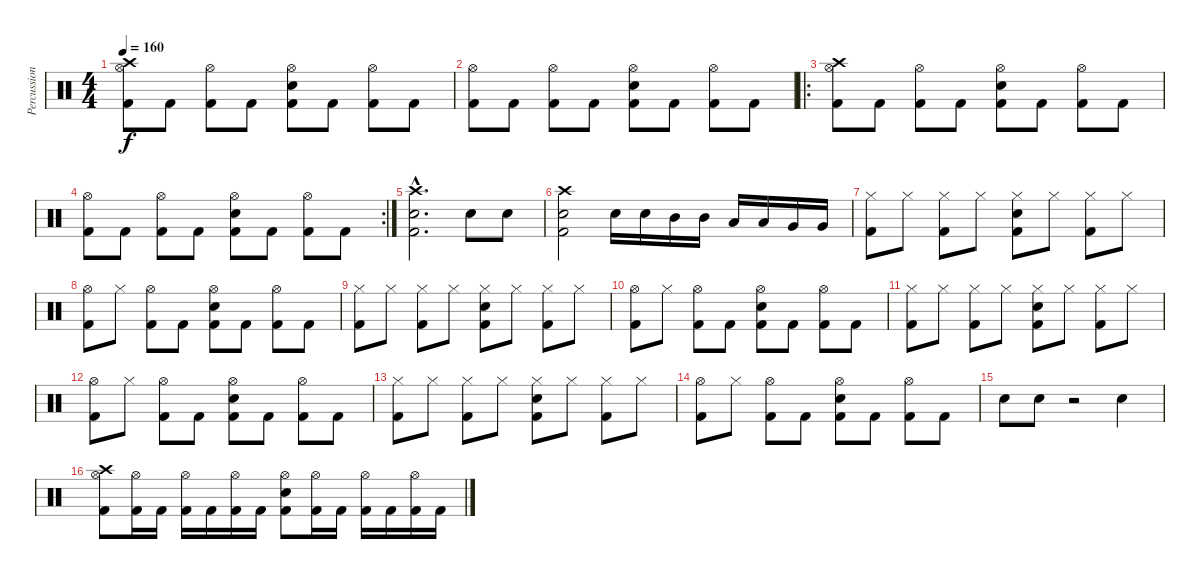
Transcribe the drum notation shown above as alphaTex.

\track ("Percussion" "Percussion") {instrument percussion}
\staff {score}
\articulation defaults
\ts (4 4)
\tempo 160
\clef neutral
\ks c
("Crash high (hit)" "Hi-Hat (open)" "Kick (hit) 2").8{dy f} "Kick (hit) 2".8 ("Hi-Hat (open)" "Kick (hit) 2").8 "Kick (hit) 2".8 ("Hi-Hat (open)" "Electric Snare (hit)" "Kick (hit) 2").8 "Kick (hit) 2".8 ("Hi-Hat (open)" "Kick (hit) 2").8 "Kick (hit) 2".8 |
("Hi-Hat (open)" "Kick (hit) 2").8 "Kick (hit) 2".8 ("Hi-Hat (open)" "Kick (hit) 2").8 "Kick (hit) 2".8 ("Hi-Hat (open)" "Electric Snare (hit)" "Kick (hit) 2").8 "Kick (hit) 2".8 ("Hi-Hat (open)" "Kick (hit) 2").8 "Kick (hit) 2".8 |
\ro
("Crash high (hit)" "Hi-Hat (open)" "Kick (hit) 2").8 "Kick (hit) 2".8 ("Hi-Hat (open)" "Kick (hit) 2").8 "Kick (hit) 2".8 ("Hi-Hat (open)" "Electric Snare (hit)" "Kick (hit) 2").8 "Kick (hit) 2".8 ("Hi-Hat (open)" "Kick (hit) 2").8 "Kick (hit) 2".8 |
\rc 2
("Hi-Hat (open)" "Kick (hit) 2").8 "Kick (hit) 2".8 ("Hi-Hat (open)" "Kick (hit) 2").8 "Kick (hit) 2".8 ("Hi-Hat (open)" "Electric Snare (hit)" "Kick (hit) 2").8 "Kick (hit) 2".8 ("Hi-Hat (open)" "Kick (hit) 2").8 "Kick (hit) 2".8 |
("Crash high (hit)"{hac} "Electric Snare (hit)"{hac} "Kick (hit) 2"{hac}).2{d} "Electric Snare (hit)".8 "Electric Snare (hit)".8 |
("Crash high (hit)" "Electric Snare (hit)" "Kick (hit) 2").2 "Electric Snare (hit)".16 "Electric Snare (hit)".16 "Mid Tom (hit)".16 "Mid Tom (hit)".16 "Low Tom (hit)".16 "Low Tom (hit)".16 "Very Low Tom (hit)".16 "Very Low Tom (hit)".16 |
("Hi-Hat (closed)" "Kick (hit) 2").8 "Hi-Hat (closed)".8 ("Hi-Hat (closed)" "Kick (hit) 2").8 "Hi-Hat (closed)".8 ("Hi-Hat (closed)" "Electric Snare (hit)" "Kick (hit) 2").8 "Hi-Hat (closed)".8 ("Hi-Hat (closed)" "Kick (hit) 2").8 "Hi-Hat (closed)".8 |
("Hi-Hat (open)" "Kick (hit) 2").8 "Hi-Hat (closed)".8 ("Hi-Hat (open)" "Kick (hit) 2").8 "Kick (hit) 2".8 ("Hi-Hat (open)" "Electric Snare (hit)" "Kick (hit) 2").8 "Kick (hit) 2".8 ("Hi-Hat (open)" "Kick (hit) 2").8 "Kick (hit) 2".8 |
("Hi-Hat (closed)" "Kick (hit) 2").8 "Hi-Hat (closed)".8 ("Hi-Hat (closed)" "Kick (hit) 2").8 "Hi-Hat (closed)".8 ("Hi-Hat (closed)" "Electric Snare (hit)" "Kick (hit) 2").8 "Hi-Hat (closed)".8 ("Hi-Hat (closed)" "Kick (hit) 2").8 "Hi-Hat (closed)".8 |
("Hi-Hat (open)" "Kick (hit) 2").8 "Hi-Hat (closed)".8 ("Hi-Hat (open)" "Kick (hit) 2").8 "Kick (hit) 2".8 ("Hi-Hat (open)" "Electric Snare (hit)" "Kick (hit) 2").8 "Kick (hit) 2".8 ("Hi-Hat (open)" "Kick (hit) 2").8 "Kick (hit) 2".8 |
("Hi-Hat (closed)" "Kick (hit) 2").8 "Hi-Hat (closed)".8 ("Hi-Hat (closed)" "Kick (hit) 2").8 "Hi-Hat (closed)".8 ("Hi-Hat (closed)" "Electric Snare (hit)" "Kick (hit) 2").8 "Hi-Hat (closed)".8 ("Hi-Hat (closed)" "Kick (hit) 2").8 "Hi-Hat (closed)".8 |
("Hi-Hat (open)" "Kick (hit) 2").8 "Hi-Hat (closed)".8 ("Hi-Hat (open)" "Kick (hit) 2").8 "Kick (hit) 2".8 ("Hi-Hat (open)" "Electric Snare (hit)" "Kick (hit) 2").8 "Kick (hit) 2".8 ("Hi-Hat (open)" "Kick (hit) 2").8 "Kick (hit) 2".8 |
("Hi-Hat (closed)" "Kick (hit) 2").8 "Hi-Hat (closed)".8 ("Hi-Hat (closed)" "Kick (hit) 2").8 "Hi-Hat (closed)".8 ("Hi-Hat (closed)" "Electric Snare (hit)" "Kick (hit) 2").8 "Hi-Hat (closed)".8 ("Hi-Hat (closed)" "Kick (hit) 2").8 "Hi-Hat (closed)".8 |
("Hi-Hat (open)" "Kick (hit) 2").8 "Hi-Hat (closed)".8 ("Hi-Hat (open)" "Kick (hit) 2").8 "Kick (hit) 2".8 ("Hi-Hat (open)" "Electric Snare (hit)" "Kick (hit) 2").8 "Kick (hit) 2".8 ("Hi-Hat (open)" "Kick (hit) 2").8 "Kick (hit) 2".8 |
"Electric Snare (hit)".8 "Electric Snare (hit)".8 r.2 "Electric Snare (hit)".4 |
("Crash high (hit)" "Hi-Hat (open)" "Kick (hit) 2").8 ("Hi-Hat (open)" "Kick (hit) 2").16 "Kick (hit) 2".16 ("Hi-Hat (open)" "Kick (hit) 2").16 "Kick (hit) 2".16 ("Hi-Hat (open)" "Kick (hit) 2").16 "Kick (hit) 2".16 ("Hi-Hat (open)" "Electric Snare (hit)" "Kick (hit) 2").8 ("Hi-Hat (open)" "Kick (hit) 2").16 "Kick (hit) 2".16 ("Hi-Hat (open)" "Kick (hit) 2").16 "Kick (hit) 2".16 ("Hi-Hat (open)" "Kick (hit) 2").16 "Kick (hit) 2".16
